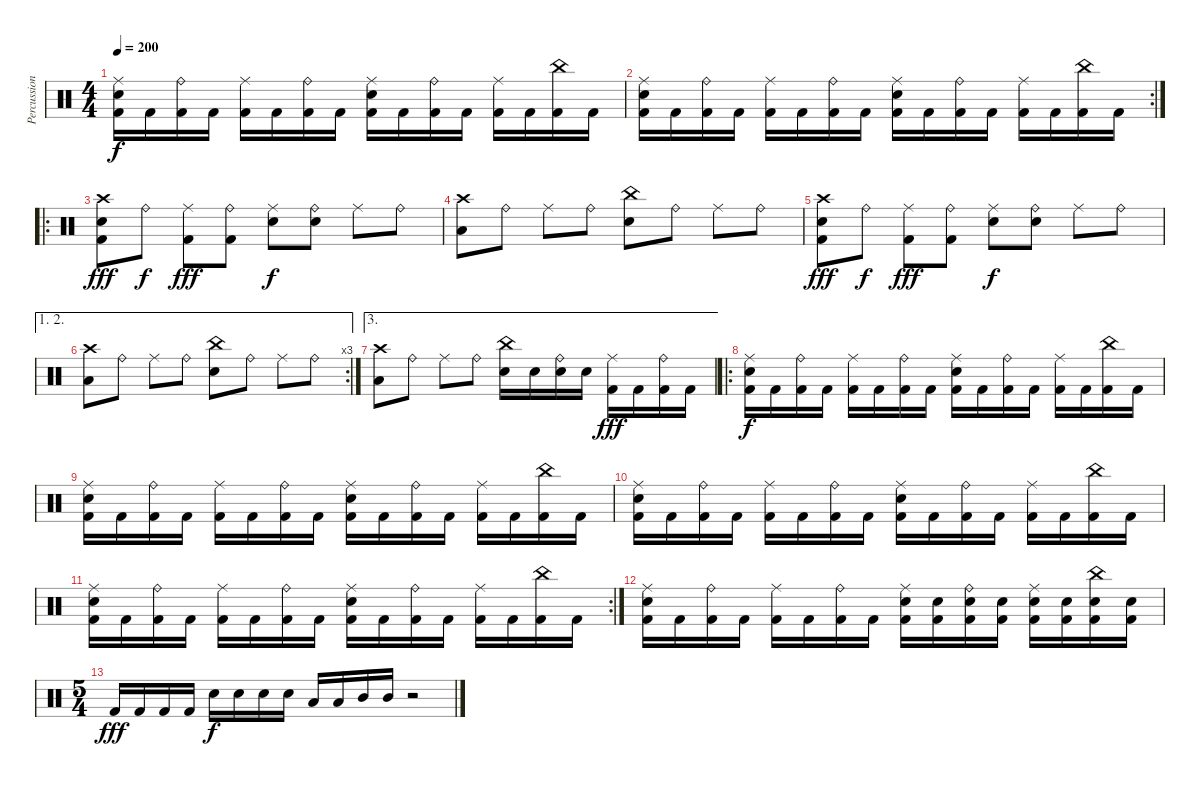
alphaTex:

\track ("Percussion" "Percussion") {instrument percussion}
\staff {score}
\articulation defaults
\ts (4 4)
\tempo 200
\clef neutral
\ks c
("Ride (middle)" "Electric Snare (hit)" "Kick (hit) 2").16{dy f} "Kick (hit) 2".16 ("Ride (bell)" "Kick (hit) 2").16 "Kick (hit) 2".16 ("Ride (middle)" "Kick (hit) 2").16 "Kick (hit) 2".16 ("Ride (bell)" "Kick (hit) 2").16 "Kick (hit) 2".16 ("Ride (middle)" "Electric Snare (hit)" "Kick (hit) 2").16 "Kick (hit) 2".16 ("Ride (bell)" "Kick (hit) 2").16 "Kick (hit) 2".16 ("Ride (middle)" "Kick (hit) 2").16 "Kick (hit) 2".16 ("China (hit)" "Kick (hit) 2").16 "Kick (hit) 2".16 |
\rc 2
("Ride (middle)" "Electric Snare (hit)" "Kick (hit) 2").16 "Kick (hit) 2".16 ("Ride (bell)" "Kick (hit) 2").16 "Kick (hit) 2".16 ("Ride (middle)" "Kick (hit) 2").16 "Kick (hit) 2".16 ("Ride (bell)" "Kick (hit) 2").16 "Kick (hit) 2".16 ("Ride (middle)" "Electric Snare (hit)" "Kick (hit) 2").16 "Kick (hit) 2".16 ("Ride (bell)" "Kick (hit) 2").16 "Kick (hit) 2".16 ("Ride (middle)" "Kick (hit) 2").16 "Kick (hit) 2".16 ("China (hit)" "Kick (hit) 2").16 "Kick (hit) 2".16 |
\ro
("Crash high (hit)" "Electric Snare (hit)" "Kick (hit) 2").8{dy fff} "Ride (bell)".8{dy f} ("Ride (middle)" "Kick (hit) 2").8{dy fff} ("Ride (bell)" "Kick (hit) 2").8 ("Ride (middle)" "Electric Snare (hit)").8{dy f} ("Ride (bell)" "Electric Snare (hit)").8 "Ride (middle)".8 "Ride (bell)".8 |
("Crash high (hit)" "Low Tom (hit)").8 "Ride (bell)".8 "Ride (middle)".8 "Ride (bell)".8 ("China (hit)" "Electric Snare (hit)").8 "Ride (bell)".8 "Ride (middle)".8 "Ride (bell)".8 |
("Crash high (hit)" "Electric Snare (hit)" "Kick (hit) 2").8{dy fff} "Ride (bell)".8{dy f} ("Ride (middle)" "Kick (hit) 2").8{dy fff} ("Ride (bell)" "Kick (hit) 2").8 ("Ride (middle)" "Electric Snare (hit)").8{dy f} ("Ride (bell)" "Electric Snare (hit)").8 "Ride (middle)".8 "Ride (bell)".8 |
\ae (1 2)
\rc 3
("Crash high (hit)" "Low Tom (hit)").8 "Ride (bell)".8 "Ride (middle)".8 "Ride (bell)".8 ("China (hit)" "Electric Snare (hit)").8 "Ride (bell)".8 "Ride (middle)".8 "Ride (bell)".8 |
\ae 3
("Crash high (hit)" "Low Tom (hit)").8 "Ride (bell)".8 "Ride (middle)".8 "Ride (bell)".8 ("China (hit)" "Electric Snare (hit)").16 "Electric Snare (hit)".16 ("Ride (bell)" "Electric Snare (hit)").16 "Electric Snare (hit)".16 ("Ride (middle)" "Kick (hit) 2").16{dy fff} "Kick (hit) 2".16 ("Ride (bell)" "Kick (hit) 2").16 "Kick (hit) 2".16 |
\ro
("Ride (middle)" "Electric Snare (hit)" "Kick (hit) 2").16{dy f} "Kick (hit) 2".16 ("Ride (bell)" "Kick (hit) 2").16 "Kick (hit) 2".16 ("Ride (middle)" "Kick (hit) 2").16 "Kick (hit) 2".16 ("Ride (bell)" "Kick (hit) 2").16 "Kick (hit) 2".16 ("Ride (middle)" "Electric Snare (hit)" "Kick (hit) 2").16 "Kick (hit) 2".16 ("Ride (bell)" "Kick (hit) 2").16 "Kick (hit) 2".16 ("Ride (middle)" "Kick (hit) 2").16 "Kick (hit) 2".16 ("China (hit)" "Kick (hit) 2").16 "Kick (hit) 2".16 |
("Ride (middle)" "Electric Snare (hit)" "Kick (hit) 2").16 "Kick (hit) 2".16 ("Ride (bell)" "Kick (hit) 2").16 "Kick (hit) 2".16 ("Ride (middle)" "Kick (hit) 2").16 "Kick (hit) 2".16 ("Ride (bell)" "Kick (hit) 2").16 "Kick (hit) 2".16 ("Ride (middle)" "Electric Snare (hit)" "Kick (hit) 2").16 "Kick (hit) 2".16 ("Ride (bell)" "Kick (hit) 2").16 "Kick (hit) 2".16 ("Ride (middle)" "Kick (hit) 2").16 "Kick (hit) 2".16 ("China (hit)" "Kick (hit) 2").16 "Kick (hit) 2".16 |
("Ride (middle)" "Electric Snare (hit)" "Kick (hit) 2").16 "Kick (hit) 2".16 ("Ride (bell)" "Kick (hit) 2").16 "Kick (hit) 2".16 ("Ride (middle)" "Kick (hit) 2").16 "Kick (hit) 2".16 ("Ride (bell)" "Kick (hit) 2").16 "Kick (hit) 2".16 ("Ride (middle)" "Electric Snare (hit)" "Kick (hit) 2").16 "Kick (hit) 2".16 ("Ride (bell)" "Kick (hit) 2").16 "Kick (hit) 2".16 ("Ride (middle)" "Kick (hit) 2").16 "Kick (hit) 2".16 ("China (hit)" "Kick (hit) 2").16 "Kick (hit) 2".16 |
\rc 2
("Ride (middle)" "Electric Snare (hit)" "Kick (hit) 2").16 "Kick (hit) 2".16 ("Ride (bell)" "Kick (hit) 2").16 "Kick (hit) 2".16 ("Ride (middle)" "Kick (hit) 2").16 "Kick (hit) 2".16 ("Ride (bell)" "Kick (hit) 2").16 "Kick (hit) 2".16 ("Ride (middle)" "Electric Snare (hit)" "Kick (hit) 2").16 "Kick (hit) 2".16 ("Ride (bell)" "Kick (hit) 2").16 "Kick (hit) 2".16 ("Ride (middle)" "Kick (hit) 2").16 "Kick (hit) 2".16 ("China (hit)" "Kick (hit) 2").16 "Kick (hit) 2".16 |
("Ride (middle)" "Electric Snare (hit)" "Kick (hit) 2").16 "Kick (hit) 2".16 ("Ride (bell)" "Kick (hit) 2").16 "Kick (hit) 2".16 ("Ride (middle)" "Kick (hit) 2").16 "Kick (hit) 2".16 ("Ride (bell)" "Kick (hit) 2").16 "Kick (hit) 2".16 ("Ride (middle)" "Electric Snare (hit)" "Kick (hit) 2").16 ("Electric Snare (hit)" "Kick (hit) 2").16 ("Ride (bell)" "Electric Snare (hit)" "Kick (hit) 2").16 ("Electric Snare (hit)" "Kick (hit) 2").16 ("Ride (middle)" "Electric Snare (hit)" "Kick (hit) 2").16 ("Electric Snare (hit)" "Kick (hit) 2").16 ("China (hit)" "Electric Snare (hit)" "Kick (hit) 2").16 ("Electric Snare (hit)" "Kick (hit) 2").16 |
\ts (5 4)
"Kick (hit) 2".16{dy fff} "Kick (hit) 2".16 "Kick (hit) 2".16 "Kick (hit) 2".16 "Electric Snare (hit)".16{dy f} "Electric Snare (hit)".16 "Electric Snare (hit)".16 "Electric Snare (hit)".16 "Low Tom (hit)".16 "Low Tom (hit)".16 "Mid Tom (hit)".16 "Mid Tom (hit)".16 r.2
